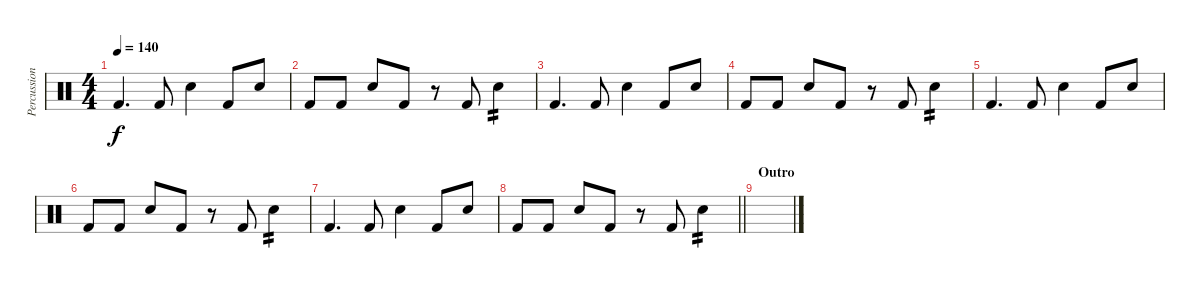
\track ("Percussion" "Percussion") {instrument percussion}
\staff {score}
\articulation defaults
\ts (4 4)
\tempo 140
\clef neutral
\ks c "Kick (hit) 2".4{d dy f} "Kick (hit) 2".8 "Electric Snare (hit)".4 "Kick (hit) 2".8 "Electric Snare (hit)".8
|
"Kick (hit) 2".8 "Kick (hit) 2".8 "Electric Snare (hit)".8 "Kick (hit) 2".8 r.8 "Kick (hit) 2".8 "Electric Snare (hit)".4{tp 2} |
"Kick (hit) 2".4{d} "Kick (hit) 2".8 "Electric Snare (hit)".4 "Kick (hit) 2".8 "Electric Snare (hit)".8 |
"Kick (hit) 2".8 "Kick (hit) 2".8 "Electric Snare (hit)".8 "Kick (hit) 2".8 r.8 "Kick (hit) 2".8 "Electric Snare (hit)".4{tp 2} |
"Kick (hit) 2".4{d} "Kick (hit) 2".8 "Electric Snare (hit)".4 "Kick (hit) 2".8 "Electric Snare (hit)".8 |
"Kick (hit) 2".8 "Kick (hit) 2".8 "Electric Snare (hit)".8 "Kick (hit) 2".8 r.8 "Kick (hit) 2".8 "Electric Snare (hit)".4{tp 2} |
"Kick (hit) 2".4{d} "Kick (hit) 2".8 "Electric Snare (hit)".4 "Kick (hit) 2".8 "Electric Snare (hit)".8 |
\barLineRight lightlight "Kick (hit) 2".8 "Kick (hit) 2".8 "Electric Snare (hit)".8 "Kick (hit) 2".8
r.8 "Kick (hit) 2".8 "Electric Snare (hit)".4{tp 2} |
\section ("" "Outro")
